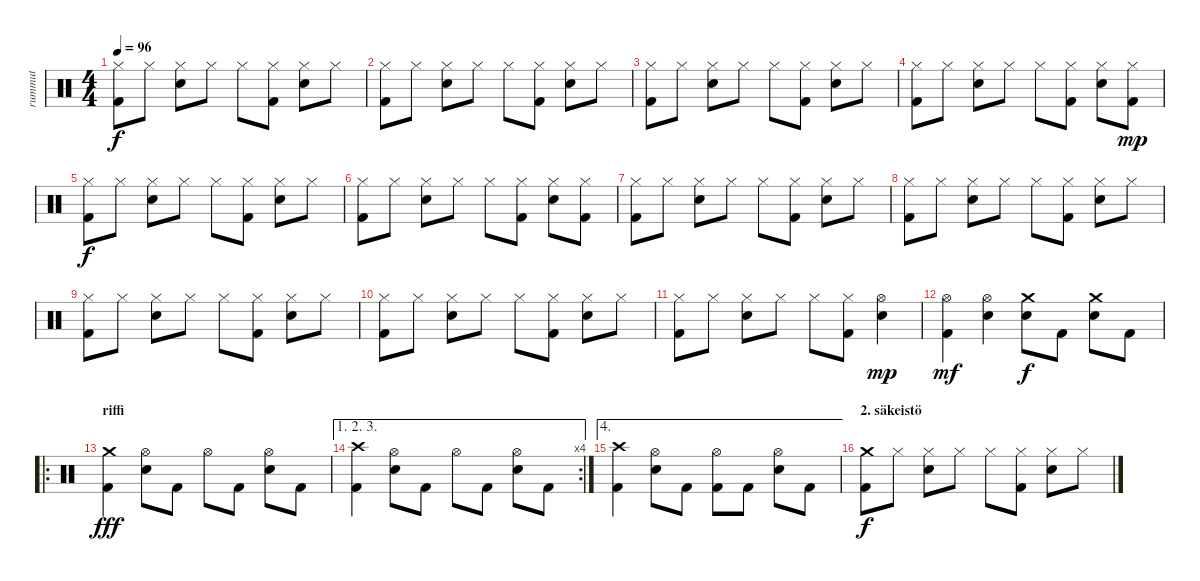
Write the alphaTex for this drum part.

\track ("rummut" "rummut") {instrument percussion}
\staff {score}
\articulation defaults
\ts (4 4)
\tempo 96
\clef neutral
\ks c
("Kick (hit) 2" "Hi-Hat (closed)").8{dy f} "Hi-Hat (closed)".8 ("Hi-Hat (closed)" "Snare (hit) 2").8 "Hi-Hat (closed)".8 "Hi-Hat (closed)".8 ("Kick (hit) 2" "Hi-Hat (closed)").8 ("Hi-Hat (closed)" "Snare (hit) 2").8 "Hi-Hat (closed)".8 |
("Kick (hit) 2" "Hi-Hat (closed)").8 "Hi-Hat (closed)".8 ("Hi-Hat (closed)" "Snare (hit) 2").8 "Hi-Hat (closed)".8 "Hi-Hat (closed)".8 ("Kick (hit) 2" "Hi-Hat (closed)").8 ("Hi-Hat (closed)" "Snare (hit) 2").8 "Hi-Hat (closed)".8 |
("Kick (hit) 2" "Hi-Hat (closed)").8 "Hi-Hat (closed)".8 ("Hi-Hat (closed)" "Snare (hit) 2").8 "Hi-Hat (closed)".8 "Hi-Hat (closed)".8 ("Kick (hit) 2" "Hi-Hat (closed)").8 ("Hi-Hat (closed)" "Snare (hit) 2").8 "Hi-Hat (closed)".8 |
("Kick (hit) 2" "Hi-Hat (closed)").8 "Hi-Hat (closed)".8 ("Hi-Hat (closed)" "Snare (hit) 2").8 "Hi-Hat (closed)".8 "Hi-Hat (closed)".8 ("Kick (hit) 2" "Hi-Hat (closed)").8 ("Hi-Hat (closed)" "Snare (hit) 2").8 ("Kick (hit) 2" "Hi-Hat (closed)").8{dy mp} |
("Kick (hit) 2" "Hi-Hat (closed)").8{dy f} "Hi-Hat (closed)".8 ("Hi-Hat (closed)" "Snare (hit) 2").8 "Hi-Hat (closed)".8 "Hi-Hat (closed)".8 ("Kick (hit) 2" "Hi-Hat (closed)").8 ("Hi-Hat (closed)" "Snare (hit) 2").8 "Hi-Hat (closed)".8 |
("Kick (hit) 2" "Hi-Hat (closed)").8 "Hi-Hat (closed)".8 ("Hi-Hat (closed)" "Snare (hit) 2").8 "Hi-Hat (closed)".8 "Hi-Hat (closed)".8 ("Kick (hit) 2" "Hi-Hat (closed)").8 ("Hi-Hat (closed)" "Snare (hit) 2").8 ("Kick (hit) 2" "Hi-Hat (closed)").8 |
("Kick (hit) 2" "Hi-Hat (closed)").8 "Hi-Hat (closed)".8 ("Hi-Hat (closed)" "Snare (hit) 2").8 "Hi-Hat (closed)".8 "Hi-Hat (closed)".8 ("Kick (hit) 2" "Hi-Hat (closed)").8 ("Hi-Hat (closed)" "Snare (hit) 2").8 "Hi-Hat (closed)".8 |
("Kick (hit) 2" "Hi-Hat (closed)").8 "Hi-Hat (closed)".8 ("Hi-Hat (closed)" "Snare (hit) 2").8 "Hi-Hat (closed)".8 "Hi-Hat (closed)".8 ("Kick (hit) 2" "Hi-Hat (closed)").8 ("Hi-Hat (closed)" "Snare (hit) 2").8 "Hi-Hat (closed)".8 |
("Kick (hit) 2" "Hi-Hat (closed)").8 "Hi-Hat (closed)".8 ("Hi-Hat (closed)" "Snare (hit) 2").8 "Hi-Hat (closed)".8 "Hi-Hat (closed)".8 ("Kick (hit) 2" "Hi-Hat (closed)").8 ("Hi-Hat (closed)" "Snare (hit) 2").8 "Hi-Hat (closed)".8 |
("Kick (hit) 2" "Hi-Hat (closed)").8 "Hi-Hat (closed)".8 ("Hi-Hat (closed)" "Snare (hit) 2").8 "Hi-Hat (closed)".8 "Hi-Hat (closed)".8 ("Kick (hit) 2" "Hi-Hat (closed)").8 ("Hi-Hat (closed)" "Snare (hit) 2").8 "Hi-Hat (closed)".8 |
("Kick (hit) 2" "Hi-Hat (closed)").8 "Hi-Hat (closed)".8 ("Hi-Hat (closed)" "Snare (hit) 2").8 "Hi-Hat (closed)".8 "Hi-Hat (closed)".8 ("Kick (hit) 2" "Hi-Hat (closed)").8 ("Hi-Hat (open)" "Snare (hit) 2").4{dy mp} |
("Kick (hit) 2" "Hi-Hat (open)").4{dy mf} ("Hi-Hat (open)" "Snare (hit) 2").4 ("Crash medium (hit)" "Snare (hit) 2").8{dy f} "Kick (hit) 2".8 ("Crash medium (hit)" "Snare (hit) 2").8 "Kick (hit) 2".8 |
\ro
\section ("" "riffi")
("Kick (hit) 2" "Crash medium (hit)").4{dy fff} ("Hi-Hat (open)" "Snare (hit) 2").8 "Kick (hit) 2".8 "Hi-Hat (open)".8 "Kick (hit) 2".8 ("Hi-Hat (open)" "Snare (hit) 2").8 "Kick (hit) 2".8 |
\ae (1 2 3)
\rc 4
("Kick (hit) 2" "Crash high (hit)").4 ("Hi-Hat (open)" "Snare (hit) 2").8 "Kick (hit) 2".8 "Hi-Hat (open)".8 "Kick (hit) 2".8 ("Hi-Hat (open)" "Snare (hit) 2").8 "Kick (hit) 2".8 |
\ae 4
("Kick (hit) 2" "Crash high (hit)").4 ("Hi-Hat (open)" "Snare (hit) 2").8 "Kick (hit) 2".8 ("Kick (hit) 2" "Hi-Hat (open)").8 "Kick (hit) 2".8 ("Hi-Hat (open)" "Snare (hit) 2").8 "Kick (hit) 2".8 |
\section ("" "2. säkeistö")
("Kick (hit) 2" "Crash medium (hit)").8{dy f} "Hi-Hat (closed)".8 ("Hi-Hat (closed)" "Snare (hit) 2").8 "Hi-Hat (closed)".8 "Hi-Hat (closed)".8 ("Kick (hit) 2" "Hi-Hat (closed)").8 ("Hi-Hat (closed)" "Snare (hit) 2").8 "Hi-Hat (closed)".8
